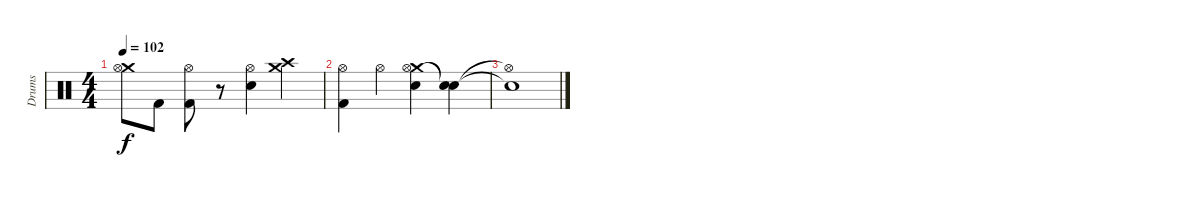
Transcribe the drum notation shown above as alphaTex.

\track ("Drums" "Drums") {instrument percussion}
\staff {score}
\articulation defaults
\ts (4 4)
\tempo 102
\clef neutral
\ks c
("Crash medium (hit)" "Hi-Hat (open)").8{dy f} "Kick (hit) 2".8 ("Hi-Hat (open)" "Kick (hit) 2").8 r.8 ("Hi-Hat (open)" "Electric Snare (hit)").4 ("Crash medium (hit)" "Crash high (hit)").4 |
("Hi-Hat (open)" "Kick (hit) 2").4 "Hi-Hat (open)".4 ("Crash medium (hit)" "Hi-Hat (open)" "Electric Snare (hit)").4 ("Snare (hit)"{t} "Snare (hit)"{t}).4 |
("Snare (hit)"{t} "Hi-Hat (open)"{t}).1
